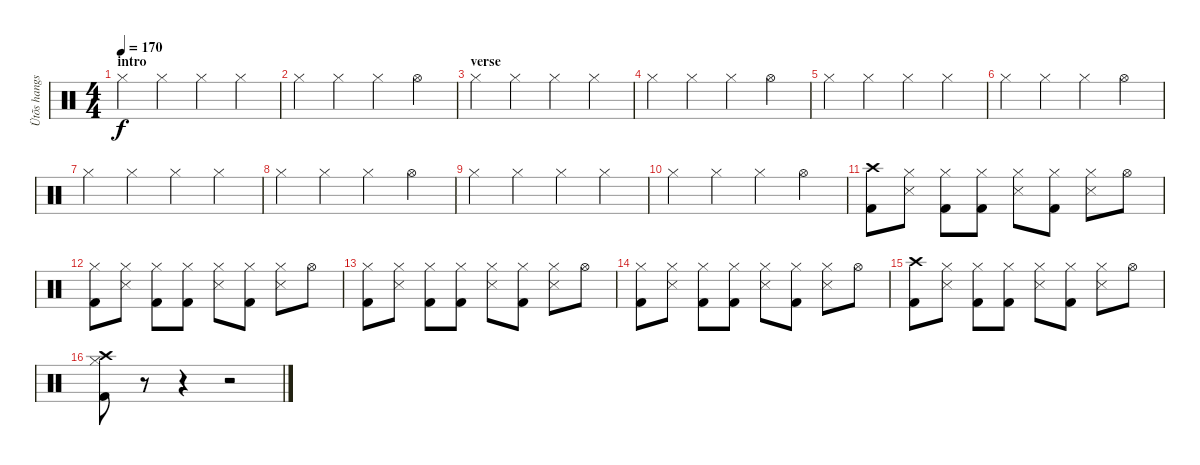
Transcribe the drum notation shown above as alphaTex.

\track ("Ütõs hangszer" "Ütõs hangs") {instrument percussion}
\staff {score}
\articulation defaults
\ts (4 4)
\section ("" "intro")
\tempo 170
\clef neutral
\ks c "Hi-Hat (closed)".4{dy f} "Hi-Hat (closed)".4 "Hi-Hat (closed)".4 "Hi-Hat (closed)".4
|
"Hi-Hat (closed)".4 "Hi-Hat (closed)".4 "Hi-Hat (closed)".4 "Hi-Hat (open)".4 |
\section ("" "verse")
"Hi-Hat (closed)".4 "Hi-Hat (closed)".4 "Hi-Hat (closed)".4 "Hi-Hat (closed)".4 |
"Hi-Hat (closed)".4 "Hi-Hat (closed)".4 "Hi-Hat (closed)".4 "Hi-Hat (open)".4 |
"Hi-Hat (closed)".4 "Hi-Hat (closed)".4 "Hi-Hat (closed)".4 "Hi-Hat (closed)".4 |
"Hi-Hat (closed)".4 "Hi-Hat (closed)".4 "Hi-Hat (closed)".4 "Hi-Hat (open)".4 |
"Hi-Hat (closed)".4 "Hi-Hat (closed)".4 "Hi-Hat (closed)".4 "Hi-Hat (closed)".4 |
"Hi-Hat (closed)".4 "Hi-Hat (closed)".4 "Hi-Hat (closed)".4 "Hi-Hat (open)".4 |
"Hi-Hat (closed)".4 "Hi-Hat (closed)".4 "Hi-Hat (closed)".4 "Hi-Hat (closed)".4 |
"Hi-Hat (closed)".4 "Hi-Hat (closed)".4 "Hi-Hat (closed)".4 "Hi-Hat (open)".4 |
("Crash high (hit)" "Kick (hit) 2").8 ("Hi-Hat (closed)" "Snare (side stick) 3").8 ("Hi-Hat (closed)" "Kick (hit) 2").8 ("Hi-Hat (closed)" "Kick (hit) 2").8 ("Hi-Hat (closed)" "Snare (side stick) 3").8 ("Hi-Hat (closed)" "Kick (hit) 2").8 ("Hi-Hat (closed)" "Snare (side stick) 3").8 "Hi-Hat (open)".8 |
("Hi-Hat (closed)" "Kick (hit) 2").8 ("Hi-Hat (closed)" "Snare (side stick) 3").8 ("Hi-Hat (closed)" "Kick (hit) 2").8 ("Hi-Hat (closed)" "Kick (hit) 2").8 ("Hi-Hat (closed)" "Snare (side stick) 3").8 ("Hi-Hat (closed)" "Kick (hit) 2").8 ("Hi-Hat (closed)" "Snare (side stick) 3").8 "Hi-Hat (open)".8 |
("Hi-Hat (closed)" "Kick (hit) 2").8 ("Hi-Hat (closed)" "Snare (side stick) 3").8 ("Hi-Hat (closed)" "Kick (hit) 2").8 ("Hi-Hat (closed)" "Kick (hit) 2").8 ("Hi-Hat (closed)" "Snare (side stick) 3").8 ("Hi-Hat (closed)" "Kick (hit) 2").8 ("Hi-Hat (closed)" "Snare (side stick) 3").8 "Hi-Hat (open)".8 |
("Hi-Hat (closed)" "Kick (hit) 2").8 ("Hi-Hat (closed)" "Snare (side stick) 3").8 ("Hi-Hat (closed)" "Kick (hit) 2").8 ("Hi-Hat (closed)" "Kick (hit) 2").8 ("Hi-Hat (closed)" "Snare (side stick) 3").8 ("Hi-Hat (closed)" "Kick (hit) 2").8 ("Hi-Hat (closed)" "Snare (side stick) 3").8 "Hi-Hat (open)".8 |
("Crash high (hit)" "Kick (hit) 2").8 ("Hi-Hat (closed)" "Snare (side stick) 3").8 ("Hi-Hat (closed)" "Kick (hit) 2").8 ("Hi-Hat (closed)" "Kick (hit) 2").8 ("Hi-Hat (closed)" "Snare (side stick) 3").8 ("Hi-Hat (closed)" "Kick (hit) 2").8 ("Hi-Hat (closed)" "Snare (side stick) 3").8 "Hi-Hat (open)".8 |
("Hi-Hat (closed)" "Crash high (hit)" "Kick (hit) 2").8 r.8 r.4 r.2
